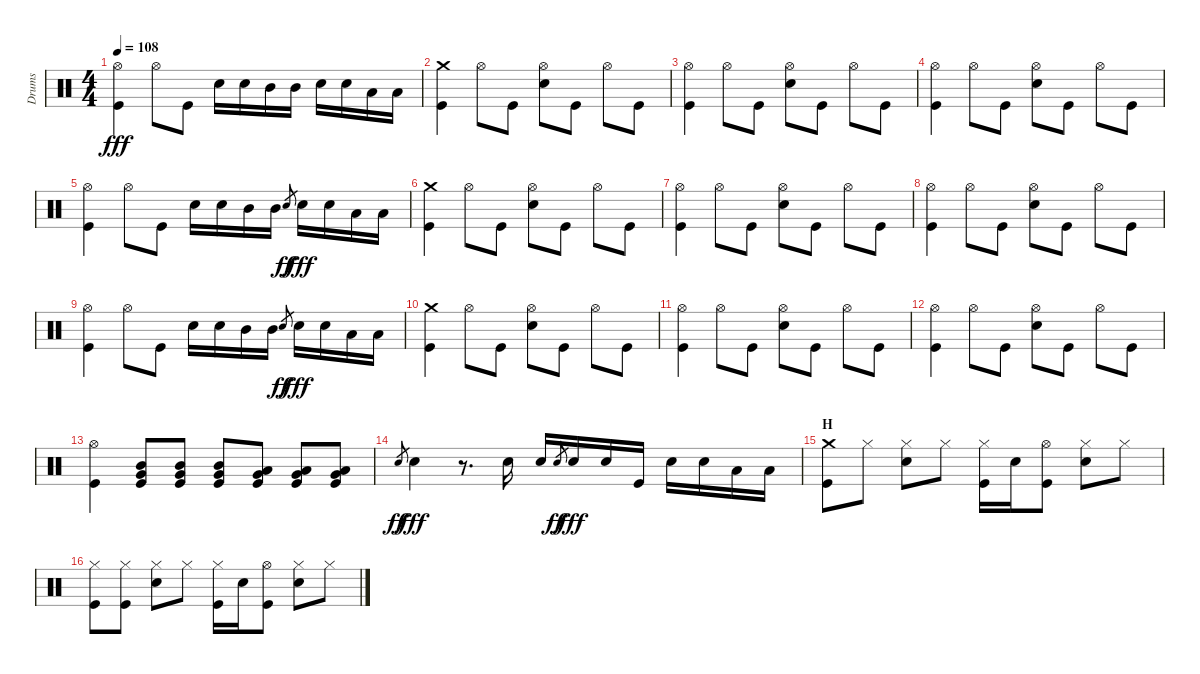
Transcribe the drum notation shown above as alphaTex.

\track ("Drums" "Drums") {instrument percussion}
\staff {score}
\articulation defaults
\ts (4 4)
\tempo 108
\clef neutral
\ks c
("Hi-Hat (open)" "Kick (hit)").4{dy fff} "Hi-Hat (open)".8 "Kick (hit)".8 "Snare (hit) 2".16 "Snare (hit) 2".16 "Mid Tom (hit)".16 "Mid Tom (hit)".16 "Snare (hit) 2".16 "Snare (hit) 2".16 "Low Tom (hit)".16 "Low Tom (hit)".16 |
("Crash medium (hit)" "Kick (hit)").4 "Hi-Hat (open)".8 "Kick (hit)".8 ("Hi-Hat (open)" "Snare (hit) 2").8 "Kick (hit)".8 "Hi-Hat (open)".8 "Kick (hit)".8 |
("Hi-Hat (open)" "Kick (hit)").4 "Hi-Hat (open)".8 "Kick (hit)".8 ("Hi-Hat (open)" "Snare (hit) 2").8 "Kick (hit)".8 "Hi-Hat (open)".8 "Kick (hit)".8 |
("Hi-Hat (open)" "Kick (hit)").4 "Hi-Hat (open)".8 "Kick (hit)".8 ("Hi-Hat (open)" "Snare (hit) 2").8 "Kick (hit)".8 "Hi-Hat (open)".8 "Kick (hit)".8 |
("Hi-Hat (open)" "Kick (hit)").4 "Hi-Hat (open)".8 "Kick (hit)".8 "Snare (hit) 2".16 "Snare (hit) 2".16 "Mid Tom (hit)".16 "Mid Tom (hit)".16 "Snare (hit)".8{gr dy ff} "Snare (hit) 2".16{dy fff} "Snare (hit) 2".16 "Low Tom (hit)".16 "Low Tom (hit)".16 |
("Crash medium (hit)" "Kick (hit)").4 "Hi-Hat (open)".8 "Kick (hit)".8 ("Hi-Hat (open)" "Snare (hit) 2").8 "Kick (hit)".8 "Hi-Hat (open)".8 "Kick (hit)".8 |
("Hi-Hat (open)" "Kick (hit)").4 "Hi-Hat (open)".8 "Kick (hit)".8 ("Hi-Hat (open)" "Snare (hit) 2").8 "Kick (hit)".8 "Hi-Hat (open)".8 "Kick (hit)".8 |
("Hi-Hat (open)" "Kick (hit)").4 "Hi-Hat (open)".8 "Kick (hit)".8 ("Hi-Hat (open)" "Snare (hit) 2").8 "Kick (hit)".8 "Hi-Hat (open)".8 "Kick (hit)".8 |
("Hi-Hat (open)" "Kick (hit)").4 "Hi-Hat (open)".8 "Kick (hit)".8 "Snare (hit) 2".16 "Snare (hit) 2".16 "Mid Tom (hit)".16 "Mid Tom (hit)".16 "Snare (hit)".8{gr dy ff} "Snare (hit) 2".16{dy fff} "Snare (hit) 2".16 "Low Tom (hit)".16 "Low Tom (hit)".16 |
("Crash medium (hit)" "Kick (hit)").4 "Hi-Hat (open)".8 "Kick (hit)".8 ("Hi-Hat (open)" "Snare (hit) 2").8 "Kick (hit)".8 "Hi-Hat (open)".8 "Kick (hit)".8 |
("Hi-Hat (open)" "Kick (hit)").4 "Hi-Hat (open)".8 "Kick (hit)".8 ("Hi-Hat (open)" "Snare (hit) 2").8 "Kick (hit)".8 "Hi-Hat (open)".8 "Kick (hit)".8 |
("Hi-Hat (open)" "Kick (hit)").4 "Hi-Hat (open)".8 "Kick (hit)".8 ("Hi-Hat (open)" "Snare (hit) 2").8 "Kick (hit)".8 "Hi-Hat (open)".8 "Kick (hit)".8 |
("Hi-Hat (open)" "Kick (hit)").4 ("Mid Tom (hit)" "Very Low Tom (hit)" "Kick (hit)").8 ("Mid Tom (hit)" "Very Low Tom (hit)" "Kick (hit)").8 ("Mid Tom (hit)" "Very Low Tom (hit)" "Kick (hit)").8 ("Low Tom (hit)" "Very Low Tom (hit)" "Kick (hit)").8 ("Low Tom (hit)" "Very Low Tom (hit)" "Kick (hit)").8 ("Low Tom (hit)" "Very Low Tom (hit)" "Kick (hit)").8 |
"Snare (hit)".8{gr dy ff} "Snare (hit) 2".4{dy fff} r.8{d} "Snare (hit) 2".16 "Snare (hit) 2".16 "Snare (hit)".8{gr dy ff} "Snare (hit) 2".16{dy fff} "Snare (hit) 2".16 "Kick (hit)".16 "Snare (hit) 2".16 "Snare (hit) 2".16 "Low Tom (hit)".16 "Low Tom (hit)".16 |
\section ("" "H")
("Crash medium (hit)" "Kick (hit)").8 "Hi-Hat (closed)".8 ("Hi-Hat (closed)" "Snare (hit) 2").8 "Hi-Hat (closed)".8 ("Hi-Hat (closed)" "Kick (hit)").16 "Snare (hit) 2".16 ("Hi-Hat (open)" "Kick (hit)").8 ("Hi-Hat (closed)" "Snare (hit) 2").8 "Hi-Hat (closed)".8 |
("Hi-Hat (closed)" "Kick (hit)").8 ("Hi-Hat (closed)" "Kick (hit)").8 ("Hi-Hat (closed)" "Snare (hit) 2").8 "Hi-Hat (closed)".8 ("Hi-Hat (closed)" "Kick (hit)").16 "Snare (hit) 2".16 ("Hi-Hat (open)" "Kick (hit)").8 ("Hi-Hat (closed)" "Snare (hit) 2").8 "Hi-Hat (closed)".8
